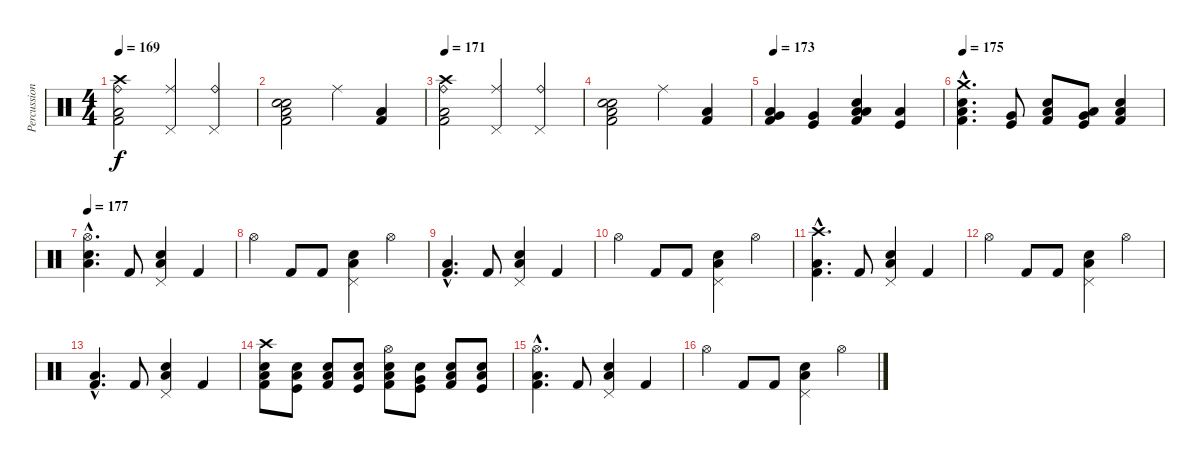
\track ("Percussions" "Percussion") {instrument percussion}
\staff {score}
\articulation defaults
\ts (4 4)
\tempo 169
\clef neutral
\ks c
("Ride (bell)" "Crash high (hit)" "Low Tom (hit)" "Kick (hit) 2").2{dy f} ("Ride (middle)" "Pedal Hi-Hat (hit)").4 ("Pedal Hi-Hat (hit)" "Ride (bell)").4 |
("Kick (hit) 2" "Low Tom (hit)" "Snare (hit) 2" "Electric Snare (hit)").2 "Ride (middle)".4 ("Low Tom (hit)" "Kick (hit) 2").4 |
\tempo 171
("Ride (bell)" "Crash high (hit)" "Low Tom (hit)" "Kick (hit) 2").2 ("Ride (middle)" "Pedal Hi-Hat (hit)").4 ("Pedal Hi-Hat (hit)" "Ride (bell)").4 |
("Kick (hit) 2" "Low Tom (hit)" "Snare (hit) 2" "Electric Snare (hit)").2 "Ride (middle)".4 ("Low Tom (hit)" "Kick (hit) 2").4 |
\tempo 173
("Kick (hit) 2" "Low Tom (hit)" "Very Low Tom (hit)").4 ("Kick (hit)" "Very Low Tom (hit)").4 ("Snare (hit) 2" "Kick (hit) 2" "Low Floor Tom (hit)" "Low Tom (hit)").4 ("Kick (hit)" "Low Tom (hit)").4 |
\tempo 175
("Kick (hit) 2"{hac} "Low Tom (hit)"{hac} "Electric Snare (hit)"{hac} "Crash medium (hit)"{hac}).4{d} ("Kick (hit)" "Very Low Tom (hit)").8 ("Electric Snare (hit)" "Kick (hit) 2" "Low Floor Tom (hit)").8 ("Low Tom (hit)" "Kick (hit)" "Very Low Tom (hit)").8 ("Kick (hit) 2" "Snare (hit) 2" "Low Floor Tom (hit)").4 |
\tempo 177
("Low Tom (hit)"{hac} "Hi-Hat (open)"{hac} "Electric Snare (hit)"{hac}).4{d balance 8} "Kick (hit) 2".8 ("Pedal Hi-Hat (hit)" "Snare (hit) 2" "Low Floor Tom (hit)").4 "Kick (hit) 2".4 |
"Hi-Hat (open)".4 "Kick (hit) 2".8 "Kick (hit) 2".8 ("Low Tom (hit)" "Snare (hit) 2" "Pedal Hi-Hat (hit)").4 "Hi-Hat (open)".4 |
("Low Tom (hit)"{hac} "Kick (hit) 2"{hac}).4{d} "Kick (hit) 2".8 ("Pedal Hi-Hat (hit)" "Snare (hit) 2" "Low Floor Tom (hit)").4 "Kick (hit) 2".4 |
"Hi-Hat (open)".4 "Kick (hit) 2".8 "Kick (hit) 2".8 ("Low Tom (hit)" "Snare (hit) 2" "Pedal Hi-Hat (hit)").4 "Hi-Hat (open)".4 |
("Low Tom (hit)"{hac} "Crash high (hit)"{hac} "Kick (hit) 2"{hac}).4{d} "Kick (hit) 2".8 ("Pedal Hi-Hat (hit)" "Snare (hit) 2" "Low Floor Tom (hit)").4 "Kick (hit) 2".4 |
"Hi-Hat (open)".4 "Kick (hit) 2".8 "Kick (hit) 2".8 ("Low Tom (hit)" "Snare (hit) 2" "Pedal Hi-Hat (hit)").4 "Hi-Hat (open)".4 |
("Low Tom (hit)"{hac} "Kick (hit) 2"{hac}).4{d} "Kick (hit) 2".8 ("Pedal Hi-Hat (hit)" "Snare (hit) 2" "Low Floor Tom (hit)").4 "Kick (hit) 2".4 |
("Crash high (hit)" "Low Tom (hit)" "Snare (hit) 2" "Kick (hit) 2").8 ("Low Tom (hit)" "Snare (hit) 2" "Kick (hit)").8 ("Low Tom (hit)" "Snare (hit) 2" "Kick (hit) 2").8 ("Low Tom (hit)" "Snare (hit) 2" "Kick (hit)").8 ("Hi-Hat (open)" "Low Floor Tom (hit)" "Electric Snare (hit)" "Kick (hit) 2").8 ("Very Low Tom (hit)" "Snare (hit) 2" "Kick (hit)").8 ("Low Tom (hit)" "Snare (hit) 2" "Kick (hit) 2").8 ("Low Tom (hit)" "Snare (hit) 2" "Kick (hit)").8 |
("Low Tom (hit)"{hac} "Hi-Hat (open)"{hac} "Kick (hit) 2"{hac}).4{d} "Kick (hit) 2".8 ("Pedal Hi-Hat (hit)" "Snare (hit) 2" "Low Floor Tom (hit)").4 "Kick (hit) 2".4 |
"Hi-Hat (open)".4 "Kick (hit) 2".8 "Kick (hit) 2".8 ("Low Tom (hit)" "Snare (hit) 2" "Pedal Hi-Hat (hit)").4 "Hi-Hat (open)".4
